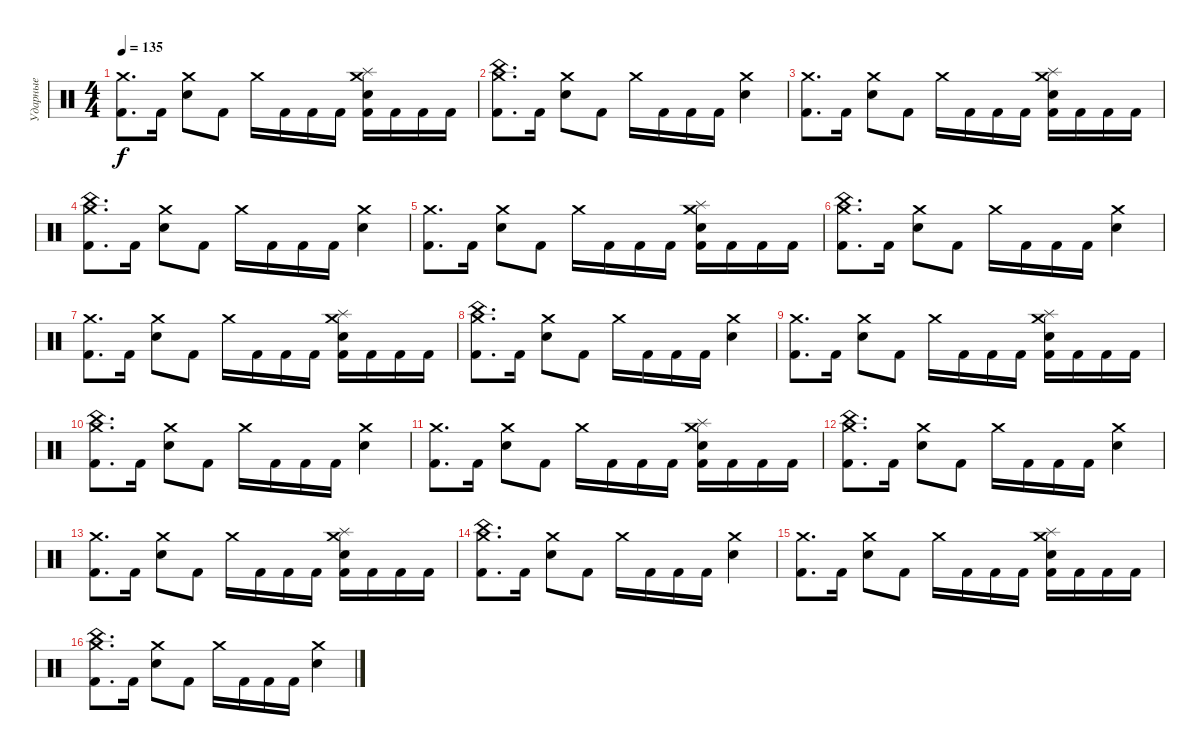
\track ("Ударные" "Ударные") {instrument percussion}
\staff {score}
\articulation defaults
\ts (4 4)
\tempo 135
\clef neutral
\ks c
("Kick (hit) 2" "Crash medium (hit)").8{d dy f} "Kick (hit) 2".16 ("Snare (hit) 2" "Crash medium (hit)").8 "Kick (hit) 2".8 "Crash medium (hit)".16 "Kick (hit) 2".16 "Kick (hit) 2".16 "Kick (hit) 2".16 ("Snare (hit) 2" "Crash medium (hit)" "Kick (hit) 2" "Splash (hit)").16 "Kick (hit) 2".16 "Kick (hit) 2".16 "Kick (hit) 2".16 |
("Kick (hit) 2" "Crash medium (hit)" "China (hit)").8{d} "Kick (hit) 2".16 ("Snare (hit) 2" "Crash medium (hit)").8 "Kick (hit) 2".8 "Crash medium (hit)".16 "Kick (hit) 2".16 "Kick (hit) 2".16 "Kick (hit) 2".16 ("Snare (hit) 2" "Crash medium (hit)").4 |
("Kick (hit) 2" "Crash medium (hit)").8{d} "Kick (hit) 2".16 ("Snare (hit) 2" "Crash medium (hit)").8 "Kick (hit) 2".8 "Crash medium (hit)".16 "Kick (hit) 2".16 "Kick (hit) 2".16 "Kick (hit) 2".16 ("Snare (hit) 2" "Crash medium (hit)" "Kick (hit) 2" "Splash (hit)").16 "Kick (hit) 2".16 "Kick (hit) 2".16 "Kick (hit) 2".16 |
("Kick (hit) 2" "Crash medium (hit)" "China (hit)").8{d} "Kick (hit) 2".16 ("Snare (hit) 2" "Crash medium (hit)").8 "Kick (hit) 2".8 "Crash medium (hit)".16 "Kick (hit) 2".16 "Kick (hit) 2".16 "Kick (hit) 2".16 ("Snare (hit) 2" "Crash medium (hit)").4 |
("Kick (hit) 2" "Crash medium (hit)").8{d} "Kick (hit) 2".16 ("Snare (hit) 2" "Crash medium (hit)").8 "Kick (hit) 2".8 "Crash medium (hit)".16 "Kick (hit) 2".16 "Kick (hit) 2".16 "Kick (hit) 2".16 ("Snare (hit) 2" "Crash medium (hit)" "Kick (hit) 2" "Splash (hit)").16 "Kick (hit) 2".16 "Kick (hit) 2".16 "Kick (hit) 2".16 |
("Kick (hit) 2" "Crash medium (hit)" "China (hit)").8{d} "Kick (hit) 2".16 ("Snare (hit) 2" "Crash medium (hit)").8 "Kick (hit) 2".8 "Crash medium (hit)".16 "Kick (hit) 2".16 "Kick (hit) 2".16 "Kick (hit) 2".16 ("Snare (hit) 2" "Crash medium (hit)").4 |
("Kick (hit) 2" "Crash medium (hit)").8{d} "Kick (hit) 2".16 ("Snare (hit) 2" "Crash medium (hit)").8 "Kick (hit) 2".8 "Crash medium (hit)".16 "Kick (hit) 2".16 "Kick (hit) 2".16 "Kick (hit) 2".16 ("Snare (hit) 2" "Crash medium (hit)" "Kick (hit) 2" "Splash (hit)").16 "Kick (hit) 2".16 "Kick (hit) 2".16 "Kick (hit) 2".16 |
("Kick (hit) 2" "Crash medium (hit)" "China (hit)").8{d} "Kick (hit) 2".16 ("Snare (hit) 2" "Crash medium (hit)").8 "Kick (hit) 2".8 "Crash medium (hit)".16 "Kick (hit) 2".16 "Kick (hit) 2".16 "Kick (hit) 2".16 ("Snare (hit) 2" "Crash medium (hit)").4 |
("Kick (hit) 2" "Crash medium (hit)").8{d} "Kick (hit) 2".16 ("Snare (hit) 2" "Crash medium (hit)").8 "Kick (hit) 2".8 "Crash medium (hit)".16 "Kick (hit) 2".16 "Kick (hit) 2".16 "Kick (hit) 2".16 ("Snare (hit) 2" "Crash medium (hit)" "Kick (hit) 2" "Splash (hit)").16 "Kick (hit) 2".16 "Kick (hit) 2".16 "Kick (hit) 2".16 |
("Kick (hit) 2" "Crash medium (hit)" "China (hit)").8{d} "Kick (hit) 2".16 ("Snare (hit) 2" "Crash medium (hit)").8 "Kick (hit) 2".8 "Crash medium (hit)".16 "Kick (hit) 2".16 "Kick (hit) 2".16 "Kick (hit) 2".16 ("Snare (hit) 2" "Crash medium (hit)").4 |
("Kick (hit) 2" "Crash medium (hit)").8{d} "Kick (hit) 2".16 ("Snare (hit) 2" "Crash medium (hit)").8 "Kick (hit) 2".8 "Crash medium (hit)".16 "Kick (hit) 2".16 "Kick (hit) 2".16 "Kick (hit) 2".16 ("Snare (hit) 2" "Crash medium (hit)" "Kick (hit) 2" "Splash (hit)").16 "Kick (hit) 2".16 "Kick (hit) 2".16 "Kick (hit) 2".16 |
("Kick (hit) 2" "Crash medium (hit)" "China (hit)").8{d} "Kick (hit) 2".16 ("Snare (hit) 2" "Crash medium (hit)").8 "Kick (hit) 2".8 "Crash medium (hit)".16 "Kick (hit) 2".16 "Kick (hit) 2".16 "Kick (hit) 2".16 ("Snare (hit) 2" "Crash medium (hit)").4 |
("Kick (hit) 2" "Crash medium (hit)").8{d} "Kick (hit) 2".16 ("Snare (hit) 2" "Crash medium (hit)").8 "Kick (hit) 2".8 "Crash medium (hit)".16 "Kick (hit) 2".16 "Kick (hit) 2".16 "Kick (hit) 2".16 ("Snare (hit) 2" "Crash medium (hit)" "Kick (hit) 2" "Splash (hit)").16 "Kick (hit) 2".16 "Kick (hit) 2".16 "Kick (hit) 2".16 |
("Kick (hit) 2" "Crash medium (hit)" "China (hit)").8{d} "Kick (hit) 2".16 ("Snare (hit) 2" "Crash medium (hit)").8 "Kick (hit) 2".8 "Crash medium (hit)".16 "Kick (hit) 2".16 "Kick (hit) 2".16 "Kick (hit) 2".16 ("Snare (hit) 2" "Crash medium (hit)").4 |
("Kick (hit) 2" "Crash medium (hit)").8{d} "Kick (hit) 2".16 ("Snare (hit) 2" "Crash medium (hit)").8 "Kick (hit) 2".8 "Crash medium (hit)".16 "Kick (hit) 2".16 "Kick (hit) 2".16 "Kick (hit) 2".16 ("Snare (hit) 2" "Crash medium (hit)" "Kick (hit) 2" "Splash (hit)").16 "Kick (hit) 2".16 "Kick (hit) 2".16 "Kick (hit) 2".16 |
("Kick (hit) 2" "Crash medium (hit)" "China (hit)").8{d} "Kick (hit) 2".16 ("Snare (hit) 2" "Crash medium (hit)").8 "Kick (hit) 2".8 "Crash medium (hit)".16 "Kick (hit) 2".16 "Kick (hit) 2".16 "Kick (hit) 2".16 ("Snare (hit) 2" "Crash medium (hit)").4
